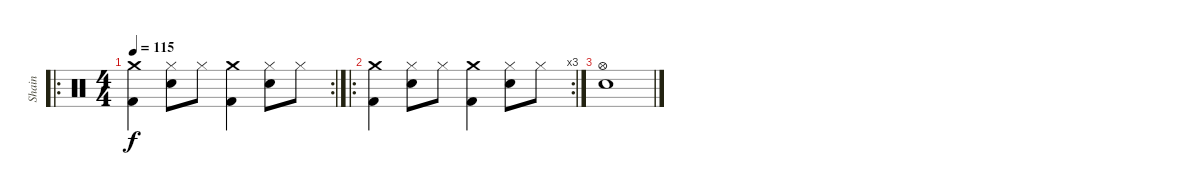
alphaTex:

\track ("Shain" "Shain") {instrument percussion}
\staff {score}
\articulation defaults
\ro
\rc 2
\ts (4 4)
\tempo 115
\clef neutral
\ks c
("Crash medium (hit)" "Kick (hit) 2").4{dy f} ("Hi-Hat (closed)" "Electric Snare (hit)").8 "Hi-Hat (closed)".8 ("Crash medium (hit)" "Kick (hit) 2").4 ("Hi-Hat (closed)" "Electric Snare (hit)").8 "Hi-Hat (closed)".8 |
\ro
\rc 3
("Crash medium (hit)" "Kick (hit) 2").4 ("Hi-Hat (closed)" "Electric Snare (hit)").8 "Hi-Hat (closed)".8 ("Crash medium (hit)" "Kick (hit) 2").4 ("Hi-Hat (closed)" "Electric Snare (hit)").8 "Hi-Hat (closed)".8 |
("Hi-Hat (open)" "Electric Snare (hit)").1
